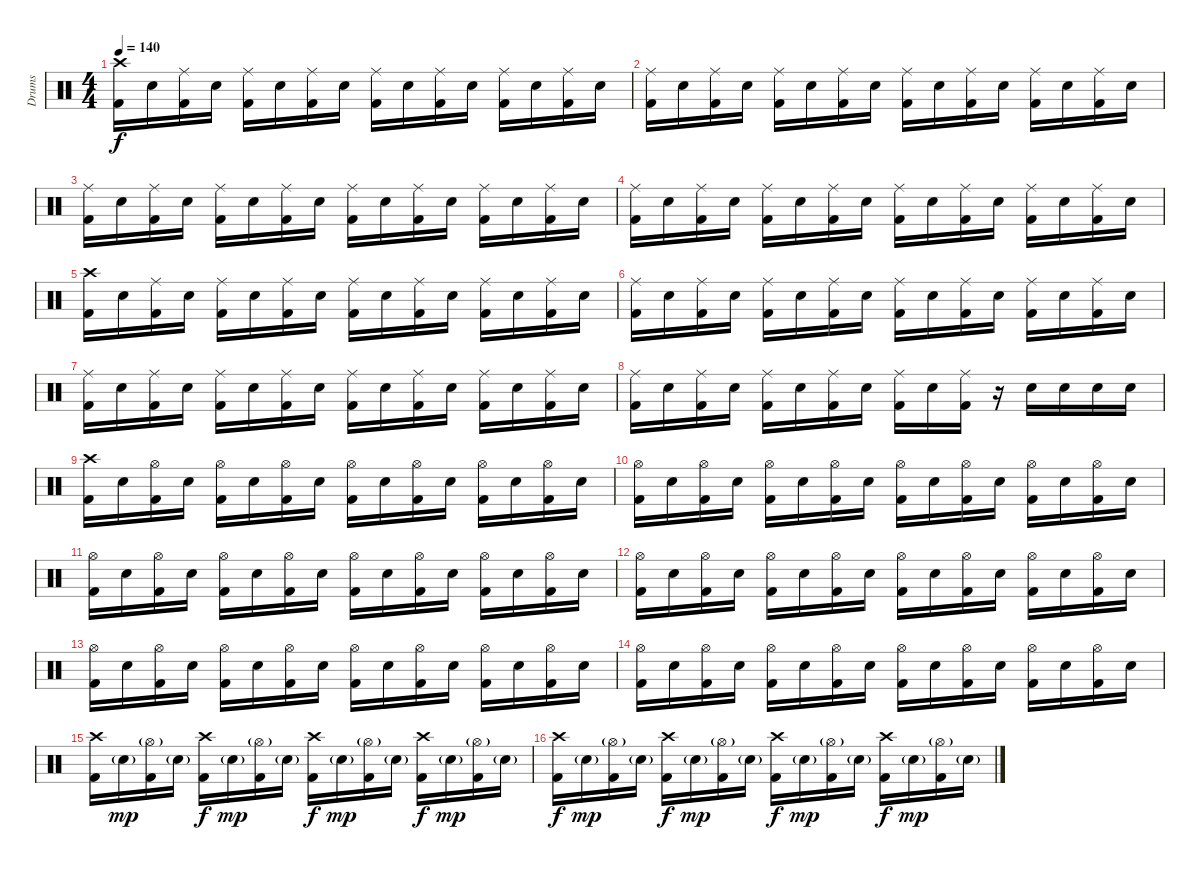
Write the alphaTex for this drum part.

\track ("Drums" "Drums") {instrument percussion}
\staff {score}
\articulation defaults
\ts (4 4)
\tempo 140
\clef neutral
\ks c
("Kick (hit) 2" "Crash high (hit)").16{dy f} "Electric Snare (hit)".16 ("Kick (hit) 2" "Ride (middle)").16 "Electric Snare (hit)".16 ("Kick (hit) 2" "Ride (middle)").16 "Electric Snare (hit)".16 ("Kick (hit) 2" "Ride (middle)").16 "Electric Snare (hit)".16 ("Kick (hit) 2" "Ride (middle)").16 "Electric Snare (hit)".16 ("Kick (hit) 2" "Ride (middle)").16 "Electric Snare (hit)".16 ("Kick (hit) 2" "Ride (middle)").16 "Electric Snare (hit)".16 ("Kick (hit) 2" "Ride (middle)").16 "Electric Snare (hit)".16 |
("Kick (hit) 2" "Ride (middle)").16 "Electric Snare (hit)".16 ("Kick (hit) 2" "Ride (middle)").16 "Electric Snare (hit)".16 ("Kick (hit) 2" "Ride (middle)").16 "Electric Snare (hit)".16 ("Kick (hit) 2" "Ride (middle)").16 "Electric Snare (hit)".16 ("Kick (hit) 2" "Ride (middle)").16 "Electric Snare (hit)".16 ("Kick (hit) 2" "Ride (middle)").16 "Electric Snare (hit)".16 ("Kick (hit) 2" "Ride (middle)").16 "Electric Snare (hit)".16 ("Kick (hit) 2" "Ride (middle)").16 "Electric Snare (hit)".16 |
("Kick (hit) 2" "Ride (middle)").16 "Electric Snare (hit)".16 ("Kick (hit) 2" "Ride (middle)").16 "Electric Snare (hit)".16 ("Kick (hit) 2" "Ride (middle)").16 "Electric Snare (hit)".16 ("Kick (hit) 2" "Ride (middle)").16 "Electric Snare (hit)".16 ("Kick (hit) 2" "Ride (middle)").16 "Electric Snare (hit)".16 ("Kick (hit) 2" "Ride (middle)").16 "Electric Snare (hit)".16 ("Kick (hit) 2" "Ride (middle)").16 "Electric Snare (hit)".16 ("Kick (hit) 2" "Ride (middle)").16 "Electric Snare (hit)".16 |
("Kick (hit) 2" "Ride (middle)").16 "Electric Snare (hit)".16 ("Kick (hit) 2" "Ride (middle)").16 "Electric Snare (hit)".16 ("Kick (hit) 2" "Ride (middle)").16 "Electric Snare (hit)".16 ("Kick (hit) 2" "Ride (middle)").16 "Electric Snare (hit)".16 ("Kick (hit) 2" "Ride (middle)").16 "Electric Snare (hit)".16 ("Kick (hit) 2" "Ride (middle)").16 "Electric Snare (hit)".16 ("Kick (hit) 2" "Ride (middle)").16 "Electric Snare (hit)".16 ("Kick (hit) 2" "Ride (middle)").16 "Electric Snare (hit)".16 |
("Kick (hit) 2" "Crash high (hit)").16 "Electric Snare (hit)".16 ("Kick (hit) 2" "Ride (middle)").16 "Electric Snare (hit)".16 ("Kick (hit) 2" "Ride (middle)").16 "Electric Snare (hit)".16 ("Kick (hit) 2" "Ride (middle)").16 "Electric Snare (hit)".16 ("Kick (hit) 2" "Ride (middle)").16 "Electric Snare (hit)".16 ("Kick (hit) 2" "Ride (middle)").16 "Electric Snare (hit)".16 ("Kick (hit) 2" "Ride (middle)").16 "Electric Snare (hit)".16 ("Kick (hit) 2" "Ride (middle)").16 "Electric Snare (hit)".16 |
("Kick (hit) 2" "Ride (middle)").16 "Electric Snare (hit)".16 ("Kick (hit) 2" "Ride (middle)").16 "Electric Snare (hit)".16 ("Kick (hit) 2" "Ride (middle)").16 "Electric Snare (hit)".16 ("Kick (hit) 2" "Ride (middle)").16 "Electric Snare (hit)".16 ("Kick (hit) 2" "Ride (middle)").16 "Electric Snare (hit)".16 ("Kick (hit) 2" "Ride (middle)").16 "Electric Snare (hit)".16 ("Kick (hit) 2" "Ride (middle)").16 "Electric Snare (hit)".16 ("Kick (hit) 2" "Ride (middle)").16 "Electric Snare (hit)".16 |
("Kick (hit) 2" "Ride (middle)").16 "Electric Snare (hit)".16 ("Kick (hit) 2" "Ride (middle)").16 "Electric Snare (hit)".16 ("Kick (hit) 2" "Ride (middle)").16 "Electric Snare (hit)".16 ("Kick (hit) 2" "Ride (middle)").16 "Electric Snare (hit)".16 ("Kick (hit) 2" "Ride (middle)").16 "Electric Snare (hit)".16 ("Kick (hit) 2" "Ride (middle)").16 "Electric Snare (hit)".16 ("Kick (hit) 2" "Ride (middle)").16 "Electric Snare (hit)".16 ("Kick (hit) 2" "Ride (middle)").16 "Electric Snare (hit)".16 |
("Kick (hit) 2" "Ride (middle)").16 "Electric Snare (hit)".16 ("Kick (hit) 2" "Ride (middle)").16 "Electric Snare (hit)".16 ("Kick (hit) 2" "Ride (middle)").16 "Electric Snare (hit)".16 ("Kick (hit) 2" "Ride (middle)").16 "Electric Snare (hit)".16 ("Kick (hit) 2" "Ride (middle)").16 "Electric Snare (hit)".16 ("Kick (hit) 2" "Ride (middle)").16 r.16 "Electric Snare (hit)".16 "Electric Snare (hit)".16 "Electric Snare (hit)".16 "Electric Snare (hit)".16 |
("Kick (hit) 2" "Crash high (hit)").16 "Electric Snare (hit)".16 ("Kick (hit) 2" "Hi-Hat (open)").16 "Electric Snare (hit)".16 ("Kick (hit) 2" "Hi-Hat (open)").16 "Electric Snare (hit)".16 ("Kick (hit) 2" "Hi-Hat (open)").16 "Electric Snare (hit)".16 ("Kick (hit) 2" "Hi-Hat (open)").16 "Electric Snare (hit)".16 ("Kick (hit) 2" "Hi-Hat (open)").16 "Electric Snare (hit)".16 ("Kick (hit) 2" "Hi-Hat (open)").16 "Electric Snare (hit)".16 ("Kick (hit) 2" "Hi-Hat (open)").16 "Electric Snare (hit)".16 |
("Kick (hit) 2" "Hi-Hat (open)").16 "Electric Snare (hit)".16 ("Kick (hit) 2" "Hi-Hat (open)").16 "Electric Snare (hit)".16 ("Kick (hit) 2" "Hi-Hat (open)").16 "Electric Snare (hit)".16 ("Kick (hit) 2" "Hi-Hat (open)").16 "Electric Snare (hit)".16 ("Kick (hit) 2" "Hi-Hat (open)").16 "Electric Snare (hit)".16 ("Kick (hit) 2" "Hi-Hat (open)").16 "Electric Snare (hit)".16 ("Kick (hit) 2" "Hi-Hat (open)").16 "Electric Snare (hit)".16 ("Kick (hit) 2" "Hi-Hat (open)").16 "Electric Snare (hit)".16 |
("Kick (hit) 2" "Hi-Hat (open)").16 "Electric Snare (hit)".16 ("Kick (hit) 2" "Hi-Hat (open)").16 "Electric Snare (hit)".16 ("Kick (hit) 2" "Hi-Hat (open)").16 "Electric Snare (hit)".16 ("Kick (hit) 2" "Hi-Hat (open)").16 "Electric Snare (hit)".16 ("Kick (hit) 2" "Hi-Hat (open)").16 "Electric Snare (hit)".16 ("Kick (hit) 2" "Hi-Hat (open)").16 "Electric Snare (hit)".16 ("Kick (hit) 2" "Hi-Hat (open)").16 "Electric Snare (hit)".16 ("Kick (hit) 2" "Hi-Hat (open)").16 "Electric Snare (hit)".16 |
("Kick (hit) 2" "Hi-Hat (open)").16 "Electric Snare (hit)".16 ("Kick (hit) 2" "Hi-Hat (open)").16 "Electric Snare (hit)".16 ("Kick (hit) 2" "Hi-Hat (open)").16 "Electric Snare (hit)".16 ("Kick (hit) 2" "Hi-Hat (open)").16 "Electric Snare (hit)".16 ("Kick (hit) 2" "Hi-Hat (open)").16 "Electric Snare (hit)".16 ("Kick (hit) 2" "Hi-Hat (open)").16 "Electric Snare (hit)".16 ("Kick (hit) 2" "Hi-Hat (open)").16 "Electric Snare (hit)".16 ("Kick (hit) 2" "Hi-Hat (open)").16 "Electric Snare (hit)".16 |
("Kick (hit) 2" "Hi-Hat (open)").16 "Electric Snare (hit)".16 ("Kick (hit) 2" "Hi-Hat (open)").16 "Electric Snare (hit)".16 ("Kick (hit) 2" "Hi-Hat (open)").16 "Electric Snare (hit)".16 ("Kick (hit) 2" "Hi-Hat (open)").16 "Electric Snare (hit)".16 ("Kick (hit) 2" "Hi-Hat (open)").16 "Electric Snare (hit)".16 ("Kick (hit) 2" "Hi-Hat (open)").16 "Electric Snare (hit)".16 ("Kick (hit) 2" "Hi-Hat (open)").16 "Electric Snare (hit)".16 ("Kick (hit) 2" "Hi-Hat (open)").16 "Electric Snare (hit)".16 |
("Kick (hit) 2" "Hi-Hat (open)").16 "Electric Snare (hit)".16 ("Kick (hit) 2" "Hi-Hat (open)").16 "Electric Snare (hit)".16 ("Kick (hit) 2" "Hi-Hat (open)").16 "Electric Snare (hit)".16 ("Kick (hit) 2" "Hi-Hat (open)").16 "Electric Snare (hit)".16 ("Kick (hit) 2" "Hi-Hat (open)").16 "Electric Snare (hit)".16 ("Kick (hit) 2" "Hi-Hat (open)").16 "Electric Snare (hit)".16 ("Kick (hit) 2" "Hi-Hat (open)").16 "Electric Snare (hit)".16 ("Kick (hit) 2" "Hi-Hat (open)").16 "Electric Snare (hit)".16 |
("Kick (hit) 2" "Crash high (hit)").16 "Electric Snare (hit)"{g}.16{dy mp} ("Kick (hit) 2" "Hi-Hat (open)"{g}).16 "Electric Snare (hit)"{g}.16 ("Kick (hit) 2" "Crash high (hit)").16{dy f} "Electric Snare (hit)"{g}.16{dy mp} ("Kick (hit) 2" "Hi-Hat (open)"{g}).16 "Electric Snare (hit)"{g}.16 ("Kick (hit) 2" "Crash high (hit)").16{dy f} "Electric Snare (hit)"{g}.16{dy mp} ("Kick (hit) 2" "Hi-Hat (open)"{g}).16 "Electric Snare (hit)"{g}.16 ("Kick (hit) 2" "Crash high (hit)").16{dy f} "Electric Snare (hit)"{g}.16{dy mp} ("Kick (hit) 2" "Hi-Hat (open)"{g}).16 "Electric Snare (hit)"{g}.16 |
("Kick (hit) 2" "Crash high (hit)").16{dy f} "Electric Snare (hit)"{g}.16{dy mp} ("Kick (hit) 2" "Hi-Hat (open)"{g}).16 "Electric Snare (hit)"{g}.16 ("Kick (hit) 2" "Crash high (hit)").16{dy f} "Electric Snare (hit)"{g}.16{dy mp} ("Kick (hit) 2" "Hi-Hat (open)"{g}).16 "Electric Snare (hit)"{g}.16 ("Kick (hit) 2" "Crash high (hit)").16{dy f} "Electric Snare (hit)"{g}.16{dy mp} ("Kick (hit) 2" "Hi-Hat (open)"{g}).16 "Electric Snare (hit)"{g}.16 ("Kick (hit) 2" "Crash high (hit)").16{dy f} "Electric Snare (hit)"{g}.16{dy mp} ("Kick (hit) 2" "Hi-Hat (open)"{g}).16 "Electric Snare (hit)"{g}.16
